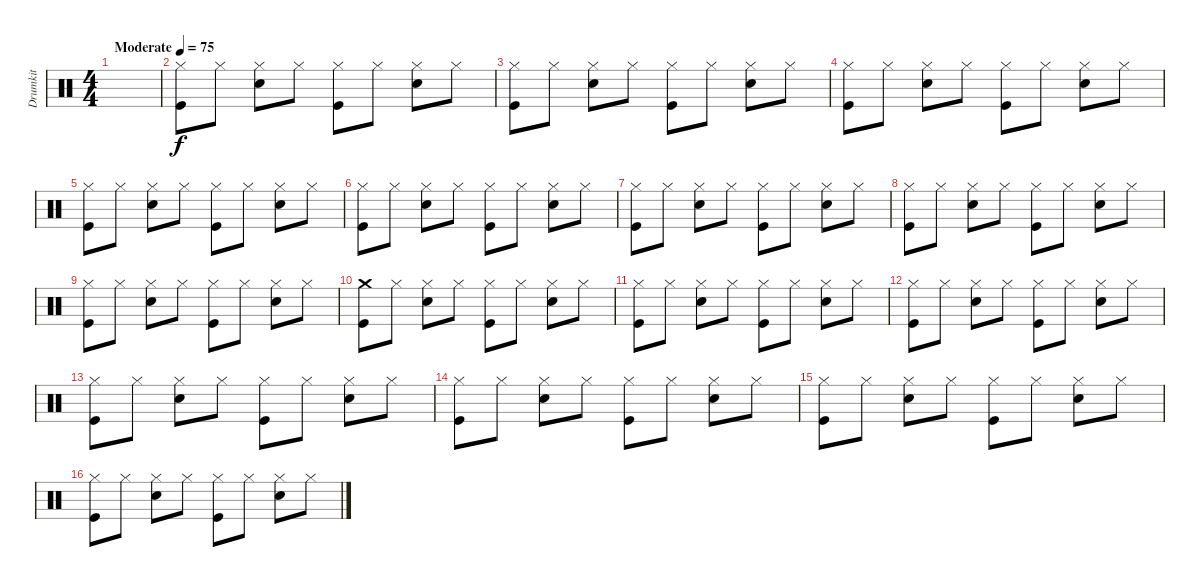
\track ("Drumkit" "Drumkit") {instrument percussion}
\staff {score}
\articulation defaults
\ts (4 4)
\tempo (75 "Moderate")
\clef neutral
\ks c
|
("Kick (hit)" "Hi-Hat (closed)").8 "Hi-Hat (closed)".8 ("Snare (hit) 2" "Hi-Hat (closed)").8 "Hi-Hat (closed)".8 ("Kick (hit)" "Hi-Hat (closed)").8 "Hi-Hat (closed)".8 ("Snare (hit) 2" "Hi-Hat (closed)").8 "Hi-Hat (closed)".8 |
("Kick (hit)" "Hi-Hat (closed)").8 "Hi-Hat (closed)".8 ("Snare (hit) 2" "Hi-Hat (closed)").8 "Hi-Hat (closed)".8 ("Kick (hit)" "Hi-Hat (closed)").8 "Hi-Hat (closed)".8 ("Snare (hit) 2" "Hi-Hat (closed)").8 "Hi-Hat (closed)".8 |
("Kick (hit)" "Hi-Hat (closed)").8 "Hi-Hat (closed)".8 ("Snare (hit) 2" "Hi-Hat (closed)").8 "Hi-Hat (closed)".8 ("Kick (hit)" "Hi-Hat (closed)").8 "Hi-Hat (closed)".8 ("Snare (hit) 2" "Hi-Hat (closed)").8 "Hi-Hat (closed)".8 |
("Kick (hit)" "Hi-Hat (closed)").8 "Hi-Hat (closed)".8 ("Snare (hit) 2" "Hi-Hat (closed)").8 "Hi-Hat (closed)".8 ("Kick (hit)" "Hi-Hat (closed)").8 "Hi-Hat (closed)".8 ("Snare (hit) 2" "Hi-Hat (closed)").8 "Hi-Hat (closed)".8 |
("Kick (hit)" "Hi-Hat (closed)").8 "Hi-Hat (closed)".8 ("Snare (hit) 2" "Hi-Hat (closed)").8 "Hi-Hat (closed)".8 ("Kick (hit)" "Hi-Hat (closed)").8 "Hi-Hat (closed)".8 ("Snare (hit) 2" "Hi-Hat (closed)").8 "Hi-Hat (closed)".8 |
("Kick (hit)" "Hi-Hat (closed)").8 "Hi-Hat (closed)".8 ("Snare (hit) 2" "Hi-Hat (closed)").8 "Hi-Hat (closed)".8 ("Kick (hit)" "Hi-Hat (closed)").8 "Hi-Hat (closed)".8 ("Snare (hit) 2" "Hi-Hat (closed)").8 "Hi-Hat (closed)".8 |
("Kick (hit)" "Hi-Hat (closed)").8 "Hi-Hat (closed)".8 ("Snare (hit) 2" "Hi-Hat (closed)").8 "Hi-Hat (closed)".8 ("Kick (hit)" "Hi-Hat (closed)").8 "Hi-Hat (closed)".8 ("Snare (hit) 2" "Hi-Hat (closed)").8 "Hi-Hat (closed)".8 |
("Kick (hit)" "Hi-Hat (closed)").8 "Hi-Hat (closed)".8 ("Snare (hit) 2" "Hi-Hat (closed)").8 "Hi-Hat (closed)".8 ("Kick (hit)" "Hi-Hat (closed)").8 "Hi-Hat (closed)".8 ("Snare (hit) 2" "Hi-Hat (closed)").8 "Hi-Hat (closed)".8 |
("Kick (hit)" "Crash medium (hit)").8 "Hi-Hat (closed)".8 ("Snare (hit) 2" "Hi-Hat (closed)").8 "Hi-Hat (closed)".8 ("Kick (hit)" "Hi-Hat (closed)").8 "Hi-Hat (closed)".8 ("Snare (hit) 2" "Hi-Hat (closed)").8 "Hi-Hat (closed)".8 |
("Kick (hit)" "Hi-Hat (closed)").8 "Hi-Hat (closed)".8 ("Snare (hit) 2" "Hi-Hat (closed)").8 "Hi-Hat (closed)".8 ("Kick (hit)" "Hi-Hat (closed)").8 "Hi-Hat (closed)".8 ("Snare (hit) 2" "Hi-Hat (closed)").8 "Hi-Hat (closed)".8 |
("Kick (hit)" "Hi-Hat (closed)").8 "Hi-Hat (closed)".8 ("Snare (hit) 2" "Hi-Hat (closed)").8 "Hi-Hat (closed)".8 ("Kick (hit)" "Hi-Hat (closed)").8 "Hi-Hat (closed)".8 ("Snare (hit) 2" "Hi-Hat (closed)").8 "Hi-Hat (closed)".8 |
("Kick (hit)" "Hi-Hat (closed)").8 "Hi-Hat (closed)".8 ("Snare (hit) 2" "Hi-Hat (closed)").8 "Hi-Hat (closed)".8 ("Kick (hit)" "Hi-Hat (closed)").8 "Hi-Hat (closed)".8 ("Snare (hit) 2" "Hi-Hat (closed)").8 "Hi-Hat (closed)".8 |
("Kick (hit)" "Hi-Hat (closed)").8 "Hi-Hat (closed)".8 ("Snare (hit) 2" "Hi-Hat (closed)").8 "Hi-Hat (closed)".8 ("Kick (hit)" "Hi-Hat (closed)").8 "Hi-Hat (closed)".8 ("Snare (hit) 2" "Hi-Hat (closed)").8 "Hi-Hat (closed)".8 |
("Kick (hit)" "Hi-Hat (closed)").8 "Hi-Hat (closed)".8 ("Snare (hit) 2" "Hi-Hat (closed)").8 "Hi-Hat (closed)".8 ("Kick (hit)" "Hi-Hat (closed)").8 "Hi-Hat (closed)".8 ("Snare (hit) 2" "Hi-Hat (closed)").8 "Hi-Hat (closed)".8 |
("Kick (hit)" "Hi-Hat (closed)").8 "Hi-Hat (closed)".8 ("Snare (hit) 2" "Hi-Hat (closed)").8 "Hi-Hat (closed)".8 ("Kick (hit)" "Hi-Hat (closed)").8 "Hi-Hat (closed)".8 ("Snare (hit) 2" "Hi-Hat (closed)").8 "Hi-Hat (closed)".8
